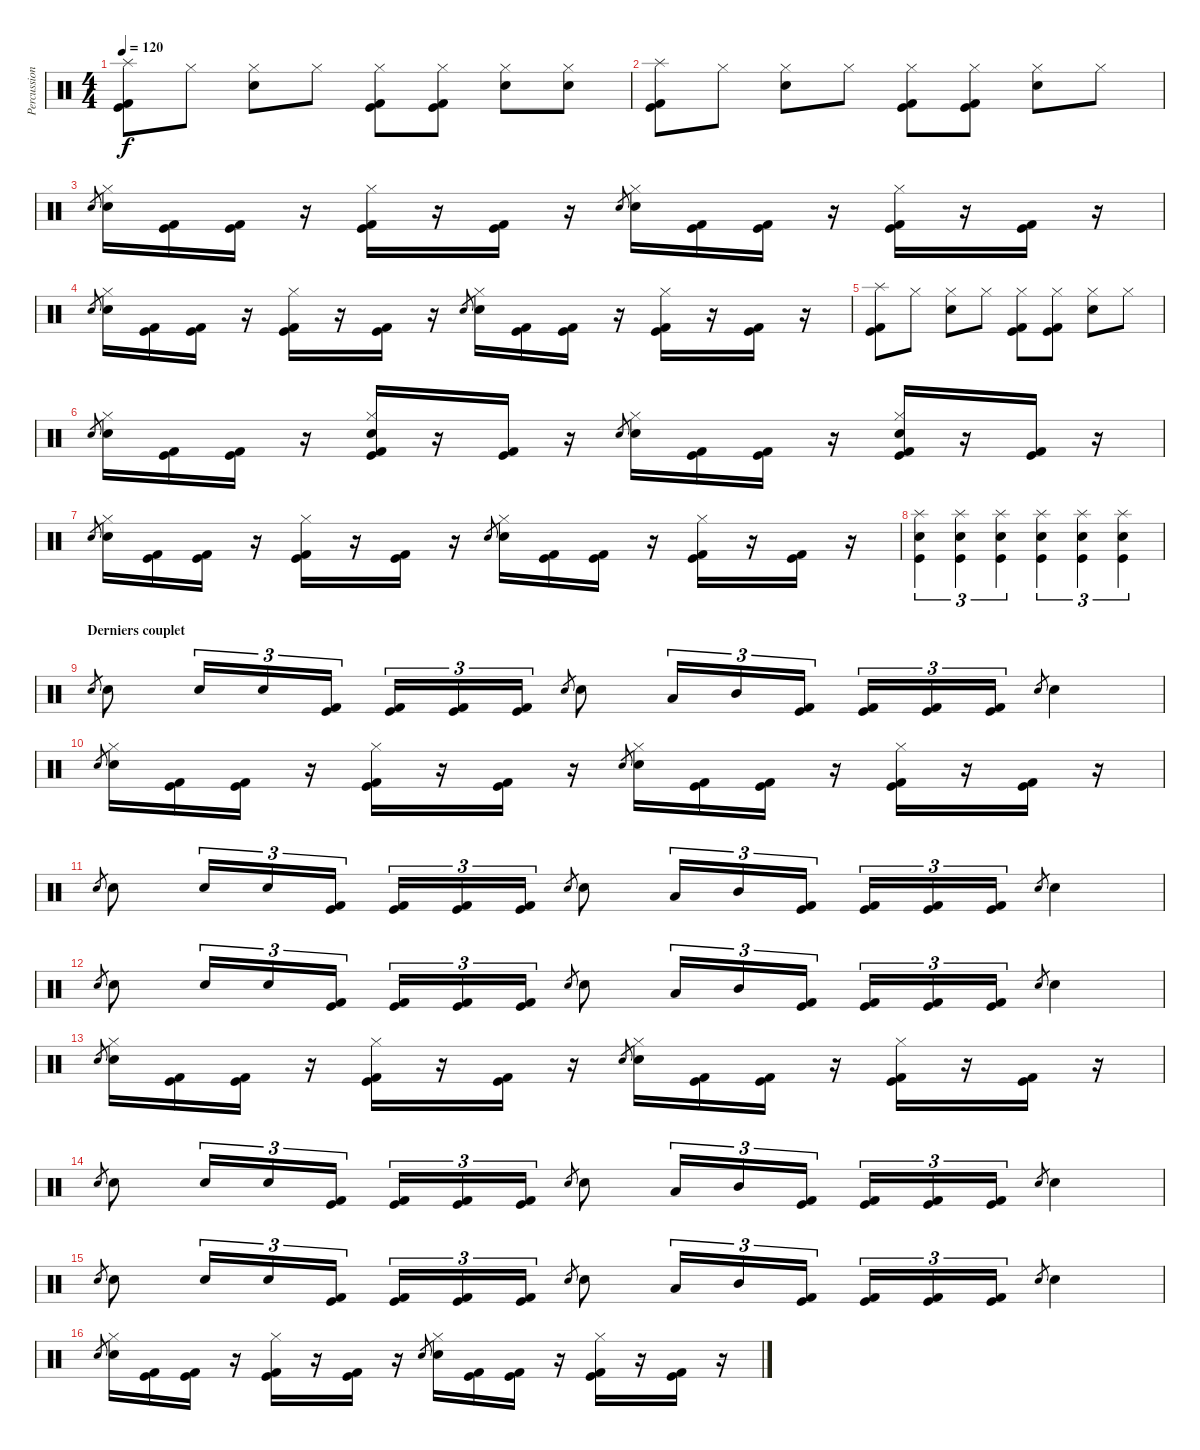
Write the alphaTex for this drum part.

\track ("Percussions" "Percussion") {instrument percussion}
\staff {score}
\articulation defaults
\ts (4 4)
\tempo 120
\clef neutral
\ks c
("Splash (hit)" "Kick (hit) 2" "Kick (hit)").8{dy f} "Hi-Hat (closed)".8 ("Hi-Hat (closed)" "Electric Snare (hit)").8 "Hi-Hat (closed)".8 ("Hi-Hat (closed)" "Kick (hit) 2" "Kick (hit)").8 ("Hi-Hat (closed)" "Kick (hit) 2" "Kick (hit)").8 ("Hi-Hat (closed)" "Electric Snare (hit)").8 ("Hi-Hat (closed)" "Electric Snare (hit)").8 |
("Splash (hit)" "Kick (hit) 2" "Kick (hit)").8 "Hi-Hat (closed)".8 ("Hi-Hat (closed)" "Electric Snare (hit)").8 "Hi-Hat (closed)".8 ("Hi-Hat (closed)" "Kick (hit) 2" "Kick (hit)").8 ("Hi-Hat (closed)" "Kick (hit) 2" "Kick (hit)").8 ("Hi-Hat (closed)" "Electric Snare (hit)").8 "Hi-Hat (closed)".8 |
"Electric Snare (hit)".8{gr} ("Hi-Hat (closed)" "Electric Snare (hit)").16 ("Kick (hit) 2" "Kick (hit)").16 ("Kick (hit) 2" "Kick (hit)").16 r.16 ("Hi-Hat (closed)" "Kick (hit) 2" "Kick (hit)").16 r.16 ("Kick (hit) 2" "Kick (hit)").16 r.16 "Electric Snare (hit)".8{gr} ("Hi-Hat (closed)" "Electric Snare (hit)").16 ("Kick (hit) 2" "Kick (hit)").16 ("Kick (hit) 2" "Kick (hit)").16 r.16 ("Hi-Hat (closed)" "Kick (hit) 2" "Kick (hit)").16 r.16 ("Kick (hit) 2" "Kick (hit)").16 r.16 |
"Electric Snare (hit)".8{gr} ("Hi-Hat (closed)" "Electric Snare (hit)").16 ("Kick (hit) 2" "Kick (hit)").16 ("Kick (hit) 2" "Kick (hit)").16 r.16 ("Hi-Hat (closed)" "Kick (hit) 2" "Kick (hit)").16 r.16 ("Kick (hit) 2" "Kick (hit)").16 r.16 "Electric Snare (hit)".8{gr} ("Hi-Hat (closed)" "Electric Snare (hit)").16 ("Kick (hit) 2" "Kick (hit)").16 ("Kick (hit) 2" "Kick (hit)").16 r.16 ("Hi-Hat (closed)" "Kick (hit) 2" "Kick (hit)").16 r.16 ("Kick (hit) 2" "Kick (hit)").16 r.16 |
("Splash (hit)" "Kick (hit) 2" "Kick (hit)").8 "Hi-Hat (closed)".8 ("Hi-Hat (closed)" "Electric Snare (hit)").8 "Hi-Hat (closed)".8 ("Hi-Hat (closed)" "Kick (hit) 2" "Kick (hit)").8 ("Hi-Hat (closed)" "Kick (hit) 2" "Kick (hit)").8 ("Hi-Hat (closed)" "Electric Snare (hit)").8 "Hi-Hat (closed)".8 |
"Electric Snare (hit)".8{gr} ("Hi-Hat (closed)" "Electric Snare (hit)").16 ("Kick (hit) 2" "Kick (hit)").16 ("Kick (hit) 2" "Kick (hit)").16 r.16 ("Hi-Hat (closed)" "Electric Snare (hit)" "Kick (hit) 2" "Kick (hit)").16 r.16 ("Kick (hit) 2" "Kick (hit)").16 r.16 "Electric Snare (hit)".8{gr} ("Hi-Hat (closed)" "Electric Snare (hit)").16 ("Kick (hit) 2" "Kick (hit)").16 ("Kick (hit) 2" "Kick (hit)").16 r.16 ("Hi-Hat (closed)" "Electric Snare (hit)" "Kick (hit) 2" "Kick (hit)").16 r.16 ("Kick (hit) 2" "Kick (hit)").16 r.16 |
"Electric Snare (hit)".8{gr} ("Hi-Hat (closed)" "Electric Snare (hit)").16 ("Kick (hit) 2" "Kick (hit)").16 ("Kick (hit) 2" "Kick (hit)").16 r.16 ("Hi-Hat (closed)" "Kick (hit) 2" "Kick (hit)").16 r.16 ("Kick (hit) 2" "Kick (hit)").16 r.16 "Electric Snare (hit)".8{gr} ("Hi-Hat (closed)" "Electric Snare (hit)").16 ("Kick (hit) 2" "Kick (hit)").16 ("Kick (hit) 2" "Kick (hit)").16 r.16 ("Hi-Hat (closed)" "Kick (hit) 2" "Kick (hit)").16 r.16 ("Kick (hit) 2" "Kick (hit)").16 r.16 |
("Splash (hit)" "Electric Snare (hit)" "Kick (hit)").4{tu (3 2)} ("Splash (hit)" "Electric Snare (hit)" "Kick (hit)").4{tu (3 2)} ("Splash (hit)" "Electric Snare (hit)" "Kick (hit)").4{tu (3 2)} ("Splash (hit)" "Electric Snare (hit)" "Kick (hit)").4{tu (3 2)} ("Splash (hit)" "Electric Snare (hit)" "Kick (hit)").4{tu (3 2)} ("Splash (hit)" "Electric Snare (hit)" "Kick (hit)").4{tu (3 2)} |
\section ("" "Derniers couplet")
"Electric Snare (hit)".8{gr} "Electric Snare (hit)".8 "Electric Snare (hit)".16{tu (3 2)} "Electric Snare (hit)".16{tu (3 2)} ("Kick (hit) 2" "Kick (hit)").16{tu (3 2)} ("Kick (hit) 2" "Kick (hit)").16{tu (3 2)} ("Kick (hit) 2" "Kick (hit)").16{tu (3 2)} ("Kick (hit) 2" "Kick (hit)").16{tu (3 2)} "Electric Snare (hit)".8{gr} "Electric Snare (hit)".8 "Low Tom (hit)".16{tu (3 2)} "Mid Tom (hit)".16{tu (3 2)} ("Kick (hit) 2" "Kick (hit)").16{tu (3 2)} ("Kick (hit) 2" "Kick (hit)").16{tu (3 2)} ("Kick (hit) 2" "Kick (hit)").16{tu (3 2)} ("Kick (hit) 2" "Kick (hit)").16{tu (3 2)} "Electric Snare (hit)".8{gr} "Electric Snare (hit)".4 |
"Electric Snare (hit)".8{gr} ("Hi-Hat (closed)" "Electric Snare (hit)").16 ("Kick (hit) 2" "Kick (hit)").16 ("Kick (hit) 2" "Kick (hit)").16 r.16 ("Hi-Hat (closed)" "Kick (hit) 2" "Kick (hit)").16 r.16 ("Kick (hit) 2" "Kick (hit)").16 r.16 "Electric Snare (hit)".8{gr} ("Hi-Hat (closed)" "Electric Snare (hit)").16 ("Kick (hit) 2" "Kick (hit)").16 ("Kick (hit) 2" "Kick (hit)").16 r.16 ("Hi-Hat (closed)" "Kick (hit) 2" "Kick (hit)").16 r.16 ("Kick (hit) 2" "Kick (hit)").16 r.16 |
"Electric Snare (hit)".8{gr} "Electric Snare (hit)".8 "Electric Snare (hit)".16{tu (3 2)} "Electric Snare (hit)".16{tu (3 2)} ("Kick (hit) 2" "Kick (hit)").16{tu (3 2)} ("Kick (hit) 2" "Kick (hit)").16{tu (3 2)} ("Kick (hit) 2" "Kick (hit)").16{tu (3 2)} ("Kick (hit) 2" "Kick (hit)").16{tu (3 2)} "Electric Snare (hit)".8{gr} "Electric Snare (hit)".8 "Low Tom (hit)".16{tu (3 2)} "Mid Tom (hit)".16{tu (3 2)} ("Kick (hit) 2" "Kick (hit)").16{tu (3 2)} ("Kick (hit) 2" "Kick (hit)").16{tu (3 2)} ("Kick (hit) 2" "Kick (hit)").16{tu (3 2)} ("Kick (hit) 2" "Kick (hit)").16{tu (3 2)} "Electric Snare (hit)".8{gr} "Electric Snare (hit)".4 |
"Electric Snare (hit)".8{gr} "Electric Snare (hit)".8 "Electric Snare (hit)".16{tu (3 2)} "Electric Snare (hit)".16{tu (3 2)} ("Kick (hit) 2" "Kick (hit)").16{tu (3 2)} ("Kick (hit) 2" "Kick (hit)").16{tu (3 2)} ("Kick (hit) 2" "Kick (hit)").16{tu (3 2)} ("Kick (hit) 2" "Kick (hit)").16{tu (3 2)} "Electric Snare (hit)".8{gr} "Electric Snare (hit)".8 "Low Tom (hit)".16{tu (3 2)} "Mid Tom (hit)".16{tu (3 2)} ("Kick (hit) 2" "Kick (hit)").16{tu (3 2)} ("Kick (hit) 2" "Kick (hit)").16{tu (3 2)} ("Kick (hit) 2" "Kick (hit)").16{tu (3 2)} ("Kick (hit) 2" "Kick (hit)").16{tu (3 2)} "Electric Snare (hit)".8{gr} "Electric Snare (hit)".4 |
"Electric Snare (hit)".8{gr} ("Hi-Hat (closed)" "Electric Snare (hit)").16 ("Kick (hit) 2" "Kick (hit)").16 ("Kick (hit) 2" "Kick (hit)").16 r.16 ("Hi-Hat (closed)" "Kick (hit) 2" "Kick (hit)").16 r.16 ("Kick (hit) 2" "Kick (hit)").16 r.16 "Electric Snare (hit)".8{gr} ("Hi-Hat (closed)" "Electric Snare (hit)").16 ("Kick (hit) 2" "Kick (hit)").16 ("Kick (hit) 2" "Kick (hit)").16 r.16 ("Hi-Hat (closed)" "Kick (hit) 2" "Kick (hit)").16 r.16 ("Kick (hit) 2" "Kick (hit)").16 r.16 |
"Electric Snare (hit)".8{gr} "Electric Snare (hit)".8 "Electric Snare (hit)".16{tu (3 2)} "Electric Snare (hit)".16{tu (3 2)} ("Kick (hit) 2" "Kick (hit)").16{tu (3 2)} ("Kick (hit) 2" "Kick (hit)").16{tu (3 2)} ("Kick (hit) 2" "Kick (hit)").16{tu (3 2)} ("Kick (hit) 2" "Kick (hit)").16{tu (3 2)} "Electric Snare (hit)".8{gr} "Electric Snare (hit)".8 "Low Tom (hit)".16{tu (3 2)} "Mid Tom (hit)".16{tu (3 2)} ("Kick (hit) 2" "Kick (hit)").16{tu (3 2)} ("Kick (hit) 2" "Kick (hit)").16{tu (3 2)} ("Kick (hit) 2" "Kick (hit)").16{tu (3 2)} ("Kick (hit) 2" "Kick (hit)").16{tu (3 2)} "Electric Snare (hit)".8{gr} "Electric Snare (hit)".4 |
"Electric Snare (hit)".8{gr} "Electric Snare (hit)".8 "Electric Snare (hit)".16{tu (3 2)} "Electric Snare (hit)".16{tu (3 2)} ("Kick (hit) 2" "Kick (hit)").16{tu (3 2)} ("Kick (hit) 2" "Kick (hit)").16{tu (3 2)} ("Kick (hit) 2" "Kick (hit)").16{tu (3 2)} ("Kick (hit) 2" "Kick (hit)").16{tu (3 2)} "Electric Snare (hit)".8{gr} "Electric Snare (hit)".8 "Low Tom (hit)".16{tu (3 2)} "Mid Tom (hit)".16{tu (3 2)} ("Kick (hit) 2" "Kick (hit)").16{tu (3 2)} ("Kick (hit) 2" "Kick (hit)").16{tu (3 2)} ("Kick (hit) 2" "Kick (hit)").16{tu (3 2)} ("Kick (hit) 2" "Kick (hit)").16{tu (3 2)} "Electric Snare (hit)".8{gr} "Electric Snare (hit)".4 |
"Electric Snare (hit)".8{gr} ("Hi-Hat (closed)" "Electric Snare (hit)").16 ("Kick (hit) 2" "Kick (hit)").16 ("Kick (hit) 2" "Kick (hit)").16 r.16 ("Hi-Hat (closed)" "Kick (hit) 2" "Kick (hit)").16 r.16 ("Kick (hit) 2" "Kick (hit)").16 r.16 "Electric Snare (hit)".8{gr} ("Hi-Hat (closed)" "Electric Snare (hit)").16 ("Kick (hit) 2" "Kick (hit)").16 ("Kick (hit) 2" "Kick (hit)").16 r.16 ("Hi-Hat (closed)" "Kick (hit) 2" "Kick (hit)").16 r.16 ("Kick (hit) 2" "Kick (hit)").16 r.16
